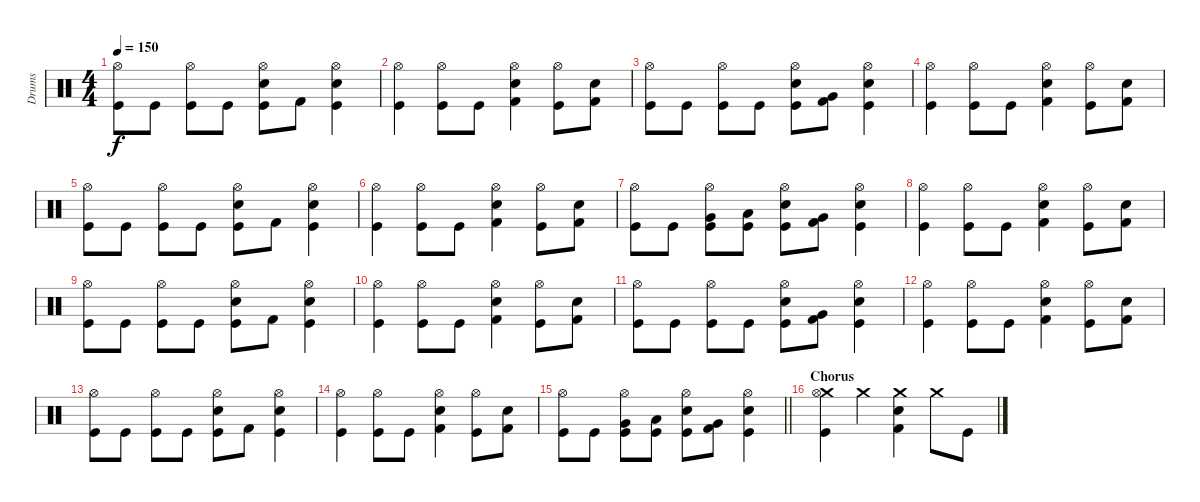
\track ("Drums" "Drums") {instrument percussion}
\staff {score}
\articulation defaults
\ts (4 4)
\tempo 150
\clef neutral
\ks c
("Hi-Hat (open)" "Kick (hit)").8{dy f} "Kick (hit)".8 ("Hi-Hat (open)" "Kick (hit)").8 "Kick (hit)".8 ("Hi-Hat (open)" "Electric Snare (hit)" "Kick (hit)").8 "Kick (hit) 2".8 ("Hi-Hat (open)" "Electric Snare (hit)" "Kick (hit)").4 |
("Hi-Hat (open)" "Kick (hit)").4 ("Hi-Hat (open)" "Kick (hit)").8 "Kick (hit)".8 ("Hi-Hat (open)" "Electric Snare (hit)" "Kick (hit) 2").4 ("Hi-Hat (open)" "Kick (hit)").8 ("Electric Snare (hit)" "Kick (hit) 2").8 |
("Hi-Hat (open)" "Kick (hit)").8 "Kick (hit)".8 ("Hi-Hat (open)" "Kick (hit)").8 "Kick (hit)".8 ("Hi-Hat (open)" "Electric Snare (hit)" "Kick (hit)").8 ("Very Low Tom (hit)" "Kick (hit) 2").8 ("Hi-Hat (open)" "Electric Snare (hit)" "Kick (hit)").4 |
("Hi-Hat (open)" "Kick (hit)").4 ("Hi-Hat (open)" "Kick (hit)").8 "Kick (hit)".8 ("Hi-Hat (open)" "Electric Snare (hit)" "Kick (hit) 2").4 ("Hi-Hat (open)" "Kick (hit)").8 ("Electric Snare (hit)" "Kick (hit) 2").8 |
("Hi-Hat (open)" "Kick (hit)").8 "Kick (hit)".8 ("Hi-Hat (open)" "Kick (hit)").8 "Kick (hit)".8 ("Hi-Hat (open)" "Electric Snare (hit)" "Kick (hit)").8 "Kick (hit) 2".8 ("Hi-Hat (open)" "Electric Snare (hit)" "Kick (hit)").4 |
("Hi-Hat (open)" "Kick (hit)").4 ("Hi-Hat (open)" "Kick (hit)").8 "Kick (hit)".8 ("Hi-Hat (open)" "Electric Snare (hit)" "Kick (hit) 2").4 ("Hi-Hat (open)" "Kick (hit)").8 ("Electric Snare (hit)" "Kick (hit) 2").8 |
("Hi-Hat (open)" "Kick (hit)").8 "Kick (hit)".8 ("Hi-Hat (open)" "Very Low Tom (hit)" "Kick (hit)").8 ("Low Tom (hit)" "Kick (hit)").8 ("Hi-Hat (open)" "Electric Snare (hit)" "Kick (hit)").8 ("Very Low Tom (hit)" "Kick (hit) 2").8 ("Hi-Hat (open)" "Electric Snare (hit)" "Kick (hit)").4 |
("Hi-Hat (open)" "Kick (hit)").4 ("Hi-Hat (open)" "Kick (hit)").8 "Kick (hit)".8 ("Hi-Hat (open)" "Electric Snare (hit)" "Kick (hit) 2").4 ("Hi-Hat (open)" "Kick (hit)").8 ("Electric Snare (hit)" "Kick (hit) 2").8 |
("Hi-Hat (open)" "Kick (hit)").8 "Kick (hit)".8 ("Hi-Hat (open)" "Kick (hit)").8 "Kick (hit)".8 ("Hi-Hat (open)" "Electric Snare (hit)" "Kick (hit)").8 "Kick (hit) 2".8 ("Hi-Hat (open)" "Electric Snare (hit)" "Kick (hit)").4 |
("Hi-Hat (open)" "Kick (hit)").4 ("Hi-Hat (open)" "Kick (hit)").8 "Kick (hit)".8 ("Hi-Hat (open)" "Electric Snare (hit)" "Kick (hit) 2").4 ("Hi-Hat (open)" "Kick (hit)").8 ("Electric Snare (hit)" "Kick (hit) 2").8 |
("Hi-Hat (open)" "Kick (hit)").8 "Kick (hit)".8 ("Hi-Hat (open)" "Kick (hit)").8 "Kick (hit)".8 ("Hi-Hat (open)" "Electric Snare (hit)" "Kick (hit)").8 ("Very Low Tom (hit)" "Kick (hit) 2").8 ("Hi-Hat (open)" "Electric Snare (hit)" "Kick (hit)").4 |
("Hi-Hat (open)" "Kick (hit)").4 ("Hi-Hat (open)" "Kick (hit)").8 "Kick (hit)".8 ("Hi-Hat (open)" "Electric Snare (hit)" "Kick (hit) 2").4 ("Hi-Hat (open)" "Kick (hit)").8 ("Electric Snare (hit)" "Kick (hit) 2").8 |
("Hi-Hat (open)" "Kick (hit)").8 "Kick (hit)".8 ("Hi-Hat (open)" "Kick (hit)").8 "Kick (hit)".8 ("Hi-Hat (open)" "Electric Snare (hit)" "Kick (hit)").8 "Kick (hit) 2".8 ("Hi-Hat (open)" "Electric Snare (hit)" "Kick (hit)").4 |
("Hi-Hat (open)" "Kick (hit)").4 ("Hi-Hat (open)" "Kick (hit)").8 "Kick (hit)".8 ("Hi-Hat (open)" "Electric Snare (hit)" "Kick (hit) 2").4 ("Hi-Hat (open)" "Kick (hit)").8 ("Electric Snare (hit)" "Kick (hit) 2").8 |
\barLineRight lightlight
("Hi-Hat (open)" "Kick (hit)").8 "Kick (hit)".8 ("Hi-Hat (open)" "Very Low Tom (hit)" "Kick (hit)").8 ("Low Tom (hit)" "Kick (hit)").8 ("Hi-Hat (open)" "Electric Snare (hit)" "Kick (hit)").8 ("Very Low Tom (hit)" "Kick (hit) 2").8 ("Hi-Hat (open)" "Electric Snare (hit)" "Kick (hit)").4 |
\section ("" "Chorus")
("Crash medium (hit)" "Hi-Hat (open)" "Kick (hit)").4 "Crash medium (hit)".4 ("Crash medium (hit)" "Electric Snare (hit)" "Kick (hit) 2").4 "Crash medium (hit)".8 "Kick (hit)".8
